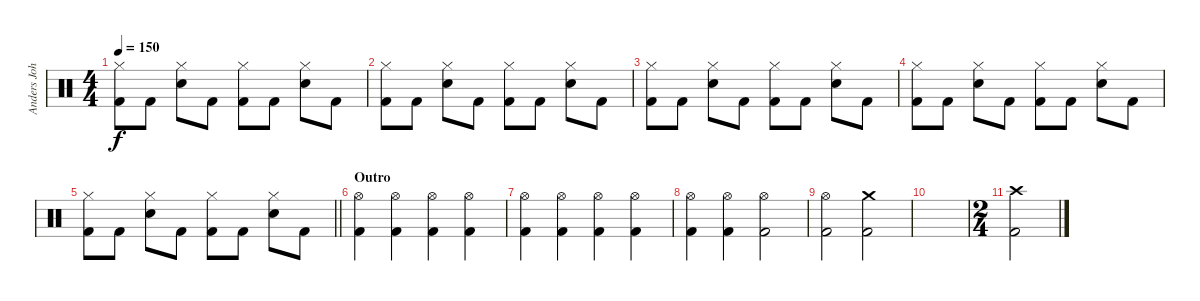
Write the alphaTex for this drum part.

\track ("Anders Johansson" "Anders Joh") {instrument percussion}
\staff {score}
\articulation defaults
\ts (4 4)
\tempo 150
\clef neutral
\ks c
("Hi-Hat (closed)" "Kick (hit) 2").8{dy f} "Kick (hit) 2".8 ("Hi-Hat (closed)" "Snare (hit) 2").8 "Kick (hit) 2".8 ("Hi-Hat (closed)" "Kick (hit) 2").8 "Kick (hit) 2".8 ("Hi-Hat (closed)" "Snare (hit) 2").8 "Kick (hit) 2".8 |
("Hi-Hat (closed)" "Kick (hit) 2").8 "Kick (hit) 2".8 ("Hi-Hat (closed)" "Snare (hit) 2").8 "Kick (hit) 2".8 ("Hi-Hat (closed)" "Kick (hit) 2").8 "Kick (hit) 2".8 ("Hi-Hat (closed)" "Snare (hit) 2").8 "Kick (hit) 2".8 |
("Hi-Hat (closed)" "Kick (hit) 2").8 "Kick (hit) 2".8 ("Hi-Hat (closed)" "Snare (hit) 2").8 "Kick (hit) 2".8 ("Hi-Hat (closed)" "Kick (hit) 2").8 "Kick (hit) 2".8 ("Hi-Hat (closed)" "Snare (hit) 2").8 "Kick (hit) 2".8 |
("Hi-Hat (closed)" "Kick (hit) 2").8 "Kick (hit) 2".8 ("Hi-Hat (closed)" "Snare (hit) 2").8 "Kick (hit) 2".8 ("Hi-Hat (closed)" "Kick (hit) 2").8 "Kick (hit) 2".8 ("Hi-Hat (closed)" "Snare (hit) 2").8 "Kick (hit) 2".8 |
\barLineRight lightlight
("Hi-Hat (closed)" "Kick (hit) 2").8 "Kick (hit) 2".8 ("Hi-Hat (closed)" "Snare (hit) 2").8 "Kick (hit) 2".8 ("Hi-Hat (closed)" "Kick (hit) 2").8 "Kick (hit) 2".8 ("Hi-Hat (closed)" "Snare (hit) 2").8 "Kick (hit) 2".8 |
\section ("" "Outro")
("Hi-Hat (open)" "Kick (hit) 2").4 ("Hi-Hat (open)" "Kick (hit) 2").4 ("Hi-Hat (open)" "Kick (hit) 2").4 ("Hi-Hat (open)" "Kick (hit) 2").4 |
("Hi-Hat (open)" "Kick (hit) 2").4 ("Hi-Hat (open)" "Kick (hit) 2").4 ("Hi-Hat (open)" "Kick (hit) 2").4 ("Hi-Hat (open)" "Kick (hit) 2").4 |
("Hi-Hat (open)" "Kick (hit) 2").4 ("Hi-Hat (open)" "Kick (hit) 2").4 ("Hi-Hat (open)" "Kick (hit) 2").2 |
("Hi-Hat (open)" "Kick (hit) 2").2 ("Crash medium (hit)" "Kick (hit) 2").2 |
|
\ts (2 4)
("Crash high (hit)" "Kick (hit) 2").2
